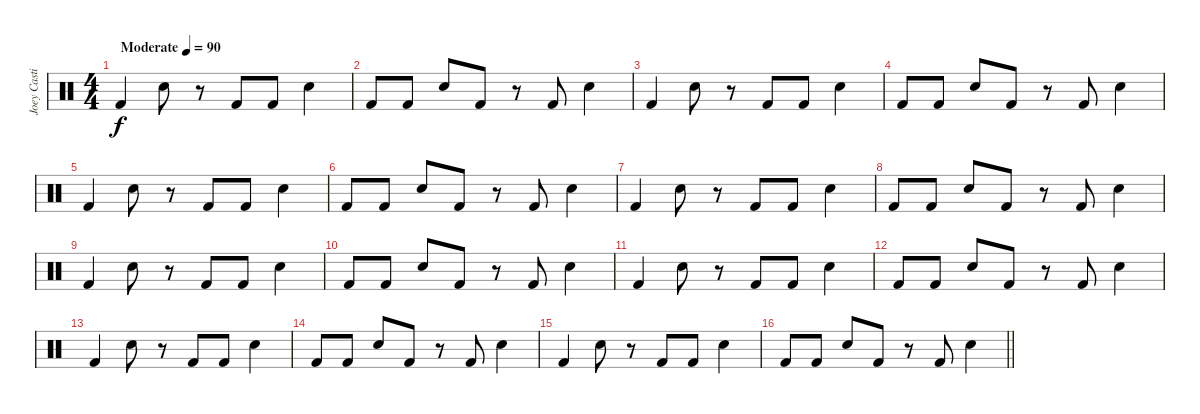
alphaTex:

\track ("Joey Castillo" "Joey Casti") {instrument percussion}
\staff {score}
\articulation defaults
\ts (4 4)
\tempo (90 "Moderate")
\clef neutral
\ks c "Kick (hit) 2".4{dy f} "Electric Snare (hit)".8
r.8 "Kick (hit) 2".8 "Kick (hit) 2".8 "Electric Snare (hit)".4 |
"Kick (hit) 2".8 "Kick (hit) 2".8 "Electric Snare (hit)".8 "Kick (hit) 2".8 r.8 "Kick (hit) 2".8 "Electric Snare (hit)".4 |
"Kick (hit) 2".4 "Electric Snare (hit)".8 r.8 "Kick (hit) 2".8 "Kick (hit) 2".8 "Electric Snare (hit)".4 |
"Kick (hit) 2".8 "Kick (hit) 2".8 "Electric Snare (hit)".8 "Kick (hit) 2".8 r.8 "Kick (hit) 2".8 "Electric Snare (hit)".4 |
"Kick (hit) 2".4 "Electric Snare (hit)".8 r.8 "Kick (hit) 2".8 "Kick (hit) 2".8 "Electric Snare (hit)".4 |
"Kick (hit) 2".8 "Kick (hit) 2".8 "Electric Snare (hit)".8 "Kick (hit) 2".8 r.8 "Kick (hit) 2".8 "Electric Snare (hit)".4 |
"Kick (hit) 2".4 "Electric Snare (hit)".8 r.8 "Kick (hit) 2".8 "Kick (hit) 2".8 "Electric Snare (hit)".4 |
"Kick (hit) 2".8 "Kick (hit) 2".8 "Electric Snare (hit)".8 "Kick (hit) 2".8 r.8 "Kick (hit) 2".8 "Electric Snare (hit)".4 |
"Kick (hit) 2".4 "Electric Snare (hit)".8 r.8 "Kick (hit) 2".8 "Kick (hit) 2".8 "Electric Snare (hit)".4 |
"Kick (hit) 2".8 "Kick (hit) 2".8 "Electric Snare (hit)".8 "Kick (hit) 2".8 r.8 "Kick (hit) 2".8 "Electric Snare (hit)".4 |
"Kick (hit) 2".4 "Electric Snare (hit)".8 r.8 "Kick (hit) 2".8 "Kick (hit) 2".8 "Electric Snare (hit)".4 |
"Kick (hit) 2".8 "Kick (hit) 2".8 "Electric Snare (hit)".8 "Kick (hit) 2".8 r.8 "Kick (hit) 2".8 "Electric Snare (hit)".4 |
"Kick (hit) 2".4 "Electric Snare (hit)".8 r.8 "Kick (hit) 2".8 "Kick (hit) 2".8 "Electric Snare (hit)".4 |
"Kick (hit) 2".8 "Kick (hit) 2".8 "Electric Snare (hit)".8 "Kick (hit) 2".8 r.8 "Kick (hit) 2".8 "Electric Snare (hit)".4 |
"Kick (hit) 2".4 "Electric Snare (hit)".8 r.8 "Kick (hit) 2".8 "Kick (hit) 2".8 "Electric Snare (hit)".4 |
\barLineRight lightlight "Kick (hit) 2".8 "Kick (hit) 2".8 "Electric Snare (hit)".8 "Kick (hit) 2".8
r.8 "Kick (hit) 2".8 "Electric Snare (hit)".4
